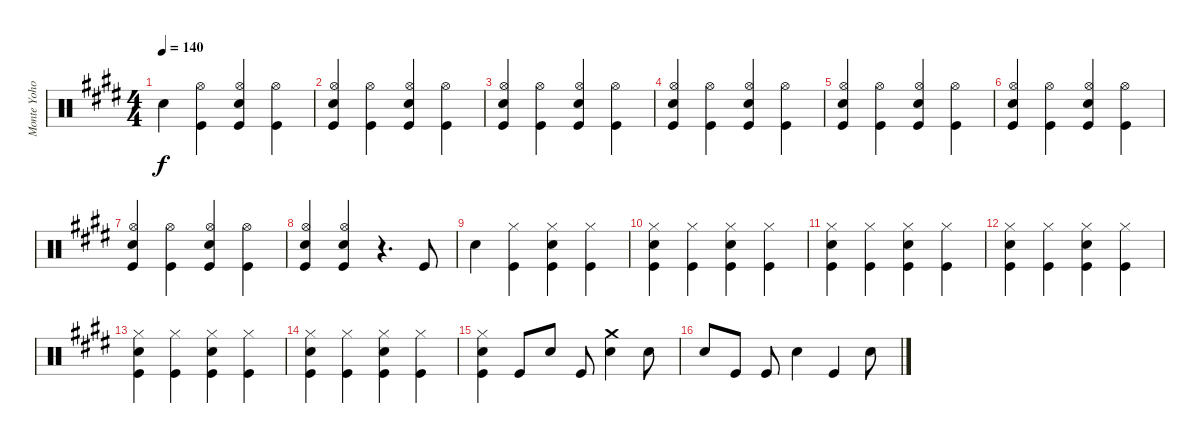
\track ("Monte Yoho Drums" "Monte Yoho") {instrument percussion}
\staff {score}
\articulation defaults
\ts (4 4)
\tempo 140
\clef neutral
\ks e "Snare (hit) 2".4{dy f}
("Hi-Hat (open)" "Kick (hit)").4 ("Hi-Hat (open)" "Snare (hit) 2" "Kick (hit)").4 ("Hi-Hat (open)" "Kick (hit)").4 |
("Hi-Hat (open)" "Snare (hit) 2" "Kick (hit)").4 ("Hi-Hat (open)" "Kick (hit)").4 ("Hi-Hat (open)" "Snare (hit) 2" "Kick (hit)").4 ("Hi-Hat (open)" "Kick (hit)").4 |
("Hi-Hat (open)" "Snare (hit) 2" "Kick (hit)").4 ("Hi-Hat (open)" "Kick (hit)").4 ("Hi-Hat (open)" "Snare (hit) 2" "Kick (hit)").4 ("Hi-Hat (open)" "Kick (hit)").4 |
("Hi-Hat (open)" "Snare (hit) 2" "Kick (hit)").4 ("Hi-Hat (open)" "Kick (hit)").4 ("Hi-Hat (open)" "Snare (hit) 2" "Kick (hit)").4 ("Hi-Hat (open)" "Kick (hit)").4 |
("Hi-Hat (open)" "Snare (hit) 2" "Kick (hit)").4 ("Hi-Hat (open)" "Kick (hit)").4 ("Hi-Hat (open)" "Snare (hit) 2" "Kick (hit)").4 ("Hi-Hat (open)" "Kick (hit)").4 |
("Hi-Hat (open)" "Snare (hit) 2" "Kick (hit)").4 ("Hi-Hat (open)" "Kick (hit)").4 ("Hi-Hat (open)" "Snare (hit) 2" "Kick (hit)").4 ("Hi-Hat (open)" "Kick (hit)").4 |
("Hi-Hat (open)" "Snare (hit) 2" "Kick (hit)").4 ("Hi-Hat (open)" "Kick (hit)").4 ("Hi-Hat (open)" "Snare (hit) 2" "Kick (hit)").4 ("Hi-Hat (open)" "Kick (hit)").4 |
("Hi-Hat (open)" "Snare (hit) 2" "Kick (hit)").4 ("Hi-Hat (open)" "Snare (hit) 2" "Kick (hit)").4 r.4{d} "Kick (hit)".8 |
"Snare (hit) 2".4 ("Hi-Hat (closed)" "Kick (hit)").4 ("Hi-Hat (closed)" "Snare (hit) 2" "Kick (hit)").4 ("Hi-Hat (closed)" "Kick (hit)").4 |
("Hi-Hat (closed)" "Snare (hit) 2" "Kick (hit)").4 ("Hi-Hat (closed)" "Kick (hit)").4 ("Hi-Hat (closed)" "Snare (hit) 2" "Kick (hit)").4 ("Hi-Hat (closed)" "Kick (hit)").4 |
("Hi-Hat (closed)" "Snare (hit) 2" "Kick (hit)").4 ("Hi-Hat (closed)" "Kick (hit)").4 ("Hi-Hat (closed)" "Snare (hit) 2" "Kick (hit)").4 ("Hi-Hat (closed)" "Kick (hit)").4 |
("Hi-Hat (closed)" "Snare (hit) 2" "Kick (hit)").4 ("Hi-Hat (closed)" "Kick (hit)").4 ("Hi-Hat (closed)" "Snare (hit) 2" "Kick (hit)").4 ("Hi-Hat (closed)" "Kick (hit)").4 |
("Hi-Hat (closed)" "Snare (hit) 2" "Kick (hit)").4 ("Hi-Hat (closed)" "Kick (hit)").4 ("Hi-Hat (closed)" "Snare (hit) 2" "Kick (hit)").4 ("Hi-Hat (closed)" "Kick (hit)").4 |
("Hi-Hat (closed)" "Snare (hit) 2" "Kick (hit)").4 ("Hi-Hat (closed)" "Kick (hit)").4 ("Hi-Hat (closed)" "Snare (hit) 2" "Kick (hit)").4 ("Hi-Hat (closed)" "Kick (hit)").4 |
("Hi-Hat (closed)" "Snare (hit) 2" "Kick (hit)").4 "Kick (hit)".8 "Snare (hit) 2".8 "Kick (hit)".8 ("Crash medium (hit)" "Snare (hit) 2").4 "Snare (hit) 2".8 |
"Snare (hit) 2".8 "Kick (hit)".8 "Kick (hit)".8 "Snare (hit) 2".4 "Kick (hit)".4 "Snare (hit) 2".8
